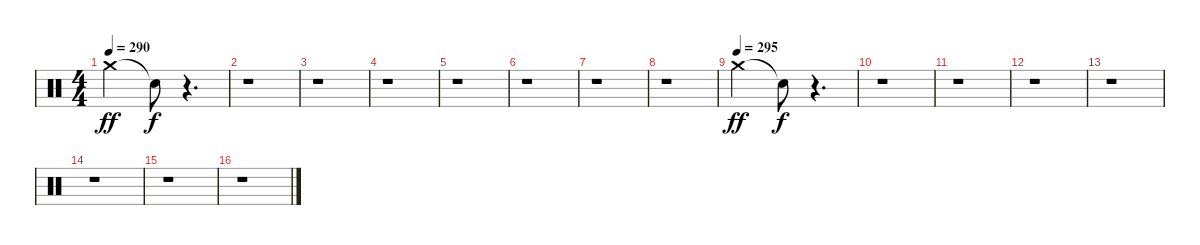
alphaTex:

\track "" {instrument percussion}
\staff {score}
\articulation defaults
\ts (4 4)
\tempo 290
\clef neutral
\ks c "Crash medium (hit)".2{dy ff} "Snare (hit)"{t}.8{dy f}
r.4{d} |
r.1 |
r.1 |
r.1 |
r.1 |
r.1 |
r.1 |
r.1 |
\tempo (295)
"Crash medium (hit)".2{dy ff} "Snare (hit)"{t}.8{dy f} r.4{d} |
r.1 |
r.1 |
r.1 |
r.1 |
r.1 |
r.1 |
r.1
